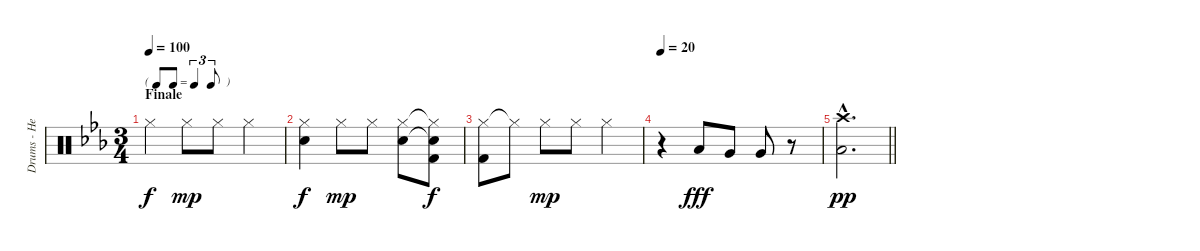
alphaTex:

\track ("Drums - Henley" "Drums - He") {instrument percussion}
\staff {score}
\articulation defaults
\ts (3 4)
\tf triplet8th
\section ("" "Finale")
\tempo 100
\clef neutral
\ks eb "Hi-Hat (closed)".4{dy f} "Hi-Hat (closed)".8{dy mp} "Hi-Hat (closed)".8 "Hi-Hat (closed)".4
|
("Hi-Hat (closed)" "Electric Snare (hit)").4{dy f} "Hi-Hat (closed)".8{dy mp} "Hi-Hat (closed)".8 ("Hi-Hat (closed)" "Electric Snare (hit)").8 ("Hi-Hat (closed)"{t} "Electric Snare (hit)"{t} "Kick (hit) 2").8{dy f} |
("Hi-Hat (closed)" "Kick (hit) 2").8 "Hi-Hat (closed)"{t}.8 "Hi-Hat (closed)".8{dy mp} "Hi-Hat (closed)".8 "Hi-Hat (closed)".4 |
\tempo 20
r.4 "Low Floor Tom (hit)".8{dy fff} "Very Low Tom (hit)".8 "Very Low Tom (hit)".8 r.8 |
\barLineRight lightlight
("Low Floor Tom (hit)"{hac} "Crash high (hit)"{hac}).2{d dy pp}
